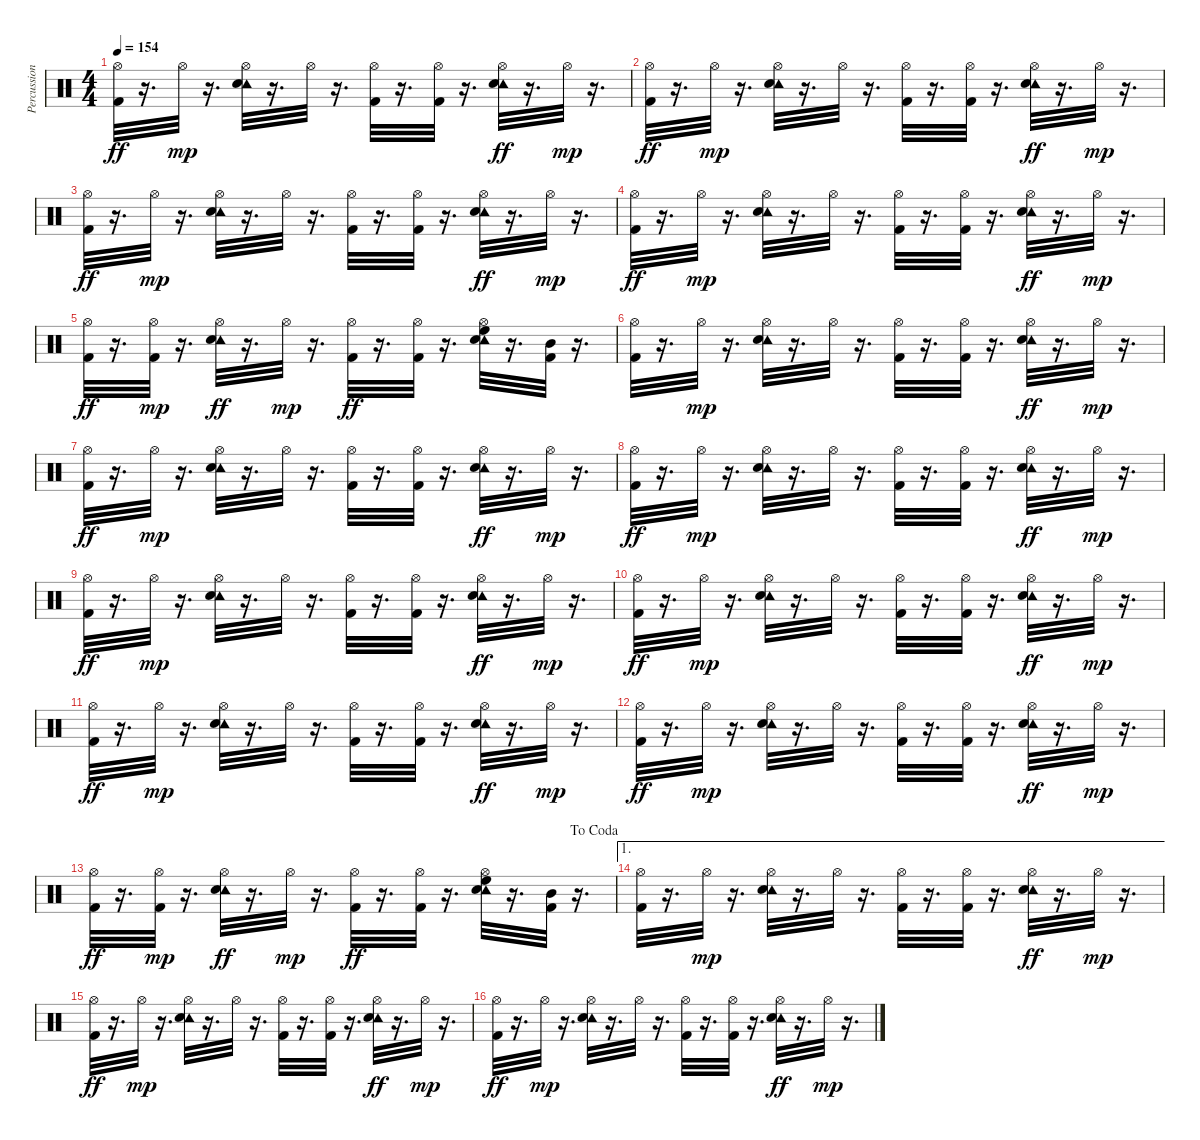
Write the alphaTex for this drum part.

\track ("Percussions" "Percussion") {instrument percussion}
\staff {score}
\articulation defaults
\ts (4 4)
\tempo 154
\clef neutral
\ks c
("Hi-Hat (open)" "Kick (hit) 2").32{dy ff} r.16{d} "Hi-Hat (open)".32{dy mp} r.16{d} ("Hi-Hat (open)" "Tambourine (hit)" "Snare (hit) 2").32 r.16{d} "Hi-Hat (open)".32 r.16{d} ("Hi-Hat (open)" "Kick (hit) 2").32 r.16{d} ("Hi-Hat (open)" "Kick (hit) 2").32 r.16{d} ("Hi-Hat (open)" "Tambourine (hit)" "Snare (hit) 2").32{dy ff} r.16{d} "Hi-Hat (open)".32{dy mp} r.16{d} |
("Hi-Hat (open)" "Kick (hit) 2").32{dy ff} r.16{d} "Hi-Hat (open)".32{dy mp} r.16{d} ("Hi-Hat (open)" "Tambourine (hit)" "Snare (hit) 2").32 r.16{d} "Hi-Hat (open)".32 r.16{d} ("Hi-Hat (open)" "Kick (hit) 2").32 r.16{d} ("Hi-Hat (open)" "Kick (hit) 2").32 r.16{d} ("Hi-Hat (open)" "Tambourine (hit)" "Snare (hit) 2").32{dy ff} r.16{d} "Hi-Hat (open)".32{dy mp} r.16{d} |
("Hi-Hat (open)" "Kick (hit) 2").32{dy ff} r.16{d} "Hi-Hat (open)".32{dy mp} r.16{d} ("Hi-Hat (open)" "Tambourine (hit)" "Snare (hit) 2").32 r.16{d} "Hi-Hat (open)".32 r.16{d} ("Hi-Hat (open)" "Kick (hit) 2").32 r.16{d} ("Hi-Hat (open)" "Kick (hit) 2").32 r.16{d} ("Hi-Hat (open)" "Tambourine (hit)" "Snare (hit) 2").32{dy ff} r.16{d} "Hi-Hat (open)".32{dy mp} r.16{d} |
("Hi-Hat (open)" "Kick (hit) 2").32{dy ff} r.16{d} "Hi-Hat (open)".32{dy mp} r.16{d} ("Hi-Hat (open)" "Tambourine (hit)" "Snare (hit) 2").32 r.16{d} "Hi-Hat (open)".32 r.16{d} ("Hi-Hat (open)" "Kick (hit) 2").32 r.16{d} ("Hi-Hat (open)" "Kick (hit) 2").32 r.16{d} ("Hi-Hat (open)" "Tambourine (hit)" "Snare (hit) 2").32{dy ff} r.16{d} "Hi-Hat (open)".32{dy mp} r.16{d} |
("Hi-Hat (open)" "Kick (hit) 2").32{dy ff} r.16{d} ("Hi-Hat (open)" "Kick (hit) 2").32{dy mp} r.16{d} ("Hi-Hat (open)" "Tambourine (hit)" "Snare (hit) 2").32{dy ff} r.16{d} "Hi-Hat (open)".32{dy mp} r.16{d} ("Hi-Hat (open)" "Kick (hit) 2").32{dy ff} r.16{d} ("Hi-Hat (open)" "Kick (hit) 2").32 r.16{d} ("High Floor Tom (hit)" "Hi-Hat (open)" "Tambourine (hit)" "Snare (hit) 2").32 r.16{d} ("Mid Tom (hit)" "Kick (hit) 2").32 r.16{d} |
("Hi-Hat (open)" "Kick (hit) 2").32 r.16{d} "Hi-Hat (open)".32{dy mp} r.16{d} ("Hi-Hat (open)" "Tambourine (hit)" "Snare (hit) 2").32 r.16{d} "Hi-Hat (open)".32 r.16{d} ("Hi-Hat (open)" "Kick (hit) 2").32 r.16{d} ("Hi-Hat (open)" "Kick (hit) 2").32 r.16{d} ("Hi-Hat (open)" "Tambourine (hit)" "Snare (hit) 2").32{dy ff} r.16{d} "Hi-Hat (open)".32{dy mp} r.16{d} |
("Hi-Hat (open)" "Kick (hit) 2").32{dy ff} r.16{d} "Hi-Hat (open)".32{dy mp} r.16{d} ("Hi-Hat (open)" "Tambourine (hit)" "Snare (hit) 2").32 r.16{d} "Hi-Hat (open)".32 r.16{d} ("Hi-Hat (open)" "Kick (hit) 2").32 r.16{d} ("Hi-Hat (open)" "Kick (hit) 2").32 r.16{d} ("Hi-Hat (open)" "Tambourine (hit)" "Snare (hit) 2").32{dy ff} r.16{d} "Hi-Hat (open)".32{dy mp} r.16{d} |
("Hi-Hat (open)" "Kick (hit) 2").32{dy ff} r.16{d} "Hi-Hat (open)".32{dy mp} r.16{d} ("Hi-Hat (open)" "Tambourine (hit)" "Snare (hit) 2").32 r.16{d} "Hi-Hat (open)".32 r.16{d} ("Hi-Hat (open)" "Kick (hit) 2").32 r.16{d} ("Hi-Hat (open)" "Kick (hit) 2").32 r.16{d} ("Hi-Hat (open)" "Tambourine (hit)" "Snare (hit) 2").32{dy ff} r.16{d} "Hi-Hat (open)".32{dy mp} r.16{d} |
("Hi-Hat (open)" "Kick (hit) 2").32{dy ff} r.16{d} "Hi-Hat (open)".32{dy mp} r.16{d} ("Hi-Hat (open)" "Tambourine (hit)" "Snare (hit) 2").32 r.16{d} "Hi-Hat (open)".32 r.16{d} ("Hi-Hat (open)" "Kick (hit) 2").32 r.16{d} ("Hi-Hat (open)" "Kick (hit) 2").32 r.16{d} ("Hi-Hat (open)" "Tambourine (hit)" "Snare (hit) 2").32{dy ff} r.16{d} "Hi-Hat (open)".32{dy mp} r.16{d} |
("Hi-Hat (open)" "Kick (hit) 2").32{dy ff} r.16{d} "Hi-Hat (open)".32{dy mp} r.16{d} ("Hi-Hat (open)" "Tambourine (hit)" "Snare (hit) 2").32 r.16{d} "Hi-Hat (open)".32 r.16{d} ("Hi-Hat (open)" "Kick (hit) 2").32 r.16{d} ("Hi-Hat (open)" "Kick (hit) 2").32 r.16{d} ("Hi-Hat (open)" "Tambourine (hit)" "Snare (hit) 2").32{dy ff} r.16{d} "Hi-Hat (open)".32{dy mp} r.16{d} |
("Hi-Hat (open)" "Kick (hit) 2").32{dy ff} r.16{d} "Hi-Hat (open)".32{dy mp} r.16{d} ("Hi-Hat (open)" "Tambourine (hit)" "Snare (hit) 2").32 r.16{d} "Hi-Hat (open)".32 r.16{d} ("Hi-Hat (open)" "Kick (hit) 2").32 r.16{d} ("Hi-Hat (open)" "Kick (hit) 2").32 r.16{d} ("Hi-Hat (open)" "Tambourine (hit)" "Snare (hit) 2").32{dy ff} r.16{d} "Hi-Hat (open)".32{dy mp} r.16{d} |
("Hi-Hat (open)" "Kick (hit) 2").32{dy ff} r.16{d} "Hi-Hat (open)".32{dy mp} r.16{d} ("Hi-Hat (open)" "Tambourine (hit)" "Snare (hit) 2").32 r.16{d} "Hi-Hat (open)".32 r.16{d} ("Hi-Hat (open)" "Kick (hit) 2").32 r.16{d} ("Hi-Hat (open)" "Kick (hit) 2").32 r.16{d} ("Hi-Hat (open)" "Tambourine (hit)" "Snare (hit) 2").32{dy ff} r.16{d} "Hi-Hat (open)".32{dy mp} r.16{d} |
\jump dacoda
("Hi-Hat (open)" "Kick (hit) 2").32{dy ff} r.16{d} ("Hi-Hat (open)" "Kick (hit) 2").32{dy mp} r.16{d} ("Hi-Hat (open)" "Tambourine (hit)" "Snare (hit) 2").32{dy ff} r.16{d} "Hi-Hat (open)".32{dy mp} r.16{d} ("Hi-Hat (open)" "Kick (hit) 2").32{dy ff} r.16{d} ("Hi-Hat (open)" "Kick (hit) 2").32 r.16{d} ("High Floor Tom (hit)" "Hi-Hat (open)" "Tambourine (hit)" "Snare (hit) 2").32 r.16{d} ("Mid Tom (hit)" "Kick (hit) 2").32 r.16{d} |
\ae 1
("Hi-Hat (open)" "Kick (hit) 2").32 r.16{d} "Hi-Hat (open)".32{dy mp} r.16{d} ("Hi-Hat (open)" "Tambourine (hit)" "Snare (hit) 2").32 r.16{d} "Hi-Hat (open)".32 r.16{d} ("Hi-Hat (open)" "Kick (hit) 2").32 r.16{d} ("Hi-Hat (open)" "Kick (hit) 2").32 r.16{d} ("Hi-Hat (open)" "Tambourine (hit)" "Snare (hit) 2").32{dy ff} r.16{d} "Hi-Hat (open)".32{dy mp} r.16{d} |
("Hi-Hat (open)" "Kick (hit) 2").32{dy ff} r.16{d} "Hi-Hat (open)".32{dy mp} r.16{d} ("Hi-Hat (open)" "Tambourine (hit)" "Snare (hit) 2").32 r.16{d} "Hi-Hat (open)".32 r.16{d} ("Hi-Hat (open)" "Kick (hit) 2").32 r.16{d} ("Hi-Hat (open)" "Kick (hit) 2").32 r.16{d} ("Hi-Hat (open)" "Tambourine (hit)" "Snare (hit) 2").32{dy ff} r.16{d} "Hi-Hat (open)".32{dy mp} r.16{d} |
("Hi-Hat (open)" "Kick (hit) 2").32{dy ff} r.16{d} "Hi-Hat (open)".32{dy mp} r.16{d} ("Hi-Hat (open)" "Tambourine (hit)" "Snare (hit) 2").32 r.16{d} "Hi-Hat (open)".32 r.16{d} ("Hi-Hat (open)" "Kick (hit) 2").32 r.16{d} ("Hi-Hat (open)" "Kick (hit) 2").32 r.16{d} ("Hi-Hat (open)" "Tambourine (hit)" "Snare (hit) 2").32{dy ff} r.16{d} "Hi-Hat (open)".32{dy mp} r.16{d}
